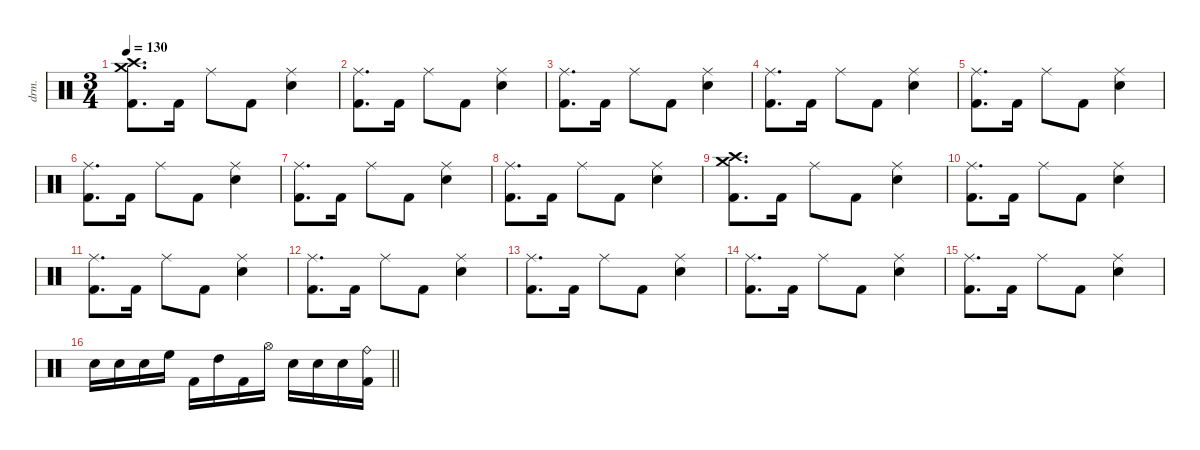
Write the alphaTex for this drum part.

\defaultSystemsLayout 4
\hideDynamics
\bracketExtendMode nobrackets
\otherSystemsTrackNameOrientation horizontal
\track ("Percussion" "drm.") {instrument percussion}
\staff {score}
\articulation defaults
\ts (3 4)
\tempo 130
\clef neutral
\ks c
("Crash medium (hit)" "Crash high (hit)" "Kick (hit) 2").8{d dy f beam Down} "Kick (hit) 2".16{beam Down} "Ride (middle)".8{beam Down} "Kick (hit) 2".8{beam Down} ("Ride (middle)" "Snare (hit) 2").4{beam Down} |
("Ride (middle)" "Kick (hit) 2").8{d beam Down} "Kick (hit) 2".16{beam Down} "Ride (middle)".8{beam Down} "Kick (hit) 2".8{beam Down} ("Ride (middle)" "Snare (hit) 2").4{beam Down} |
("Ride (middle)" "Kick (hit) 2").8{d beam Down} "Kick (hit) 2".16{beam Down} "Ride (middle)".8{beam Down} "Kick (hit) 2".8{beam Down} ("Ride (middle)" "Snare (hit) 2").4{beam Down} |
("Ride (middle)" "Kick (hit) 2").8{d beam Down} "Kick (hit) 2".16{beam Down} "Ride (middle)".8{beam Down} "Kick (hit) 2".8{beam Down} ("Ride (middle)" "Snare (hit) 2").4{beam Down} |
("Ride (middle)" "Kick (hit) 2").8{d beam Down} "Kick (hit) 2".16{beam Down} "Ride (middle)".8{beam Down} "Kick (hit) 2".8{beam Down} ("Ride (middle)" "Snare (hit) 2").4{beam Down} |
("Ride (middle)" "Kick (hit) 2").8{d beam Down} "Kick (hit) 2".16{beam Down} "Ride (middle)".8{beam Down} "Kick (hit) 2".8{beam Down} ("Ride (middle)" "Snare (hit) 2").4{beam Down} |
("Ride (middle)" "Kick (hit) 2").8{d beam Down} "Kick (hit) 2".16{beam Down} "Ride (middle)".8{beam Down} "Kick (hit) 2".8{beam Down} ("Ride (middle)" "Snare (hit) 2").4{beam Down} |
("Ride (middle)" "Kick (hit) 2").8{d beam Down} "Kick (hit) 2".16{beam Down} "Ride (middle)".8{beam Down} "Kick (hit) 2".8{beam Down} ("Ride (middle)" "Snare (hit) 2").4{beam Down} |
("Crash medium (hit)" "Crash high (hit)" "Kick (hit) 2").8{d beam Down} "Kick (hit) 2".16{beam Down} "Ride (middle)".8{beam Down} "Kick (hit) 2".8{beam Down} ("Ride (middle)" "Snare (hit) 2").4{beam Down} |
("Ride (middle)" "Kick (hit) 2").8{d beam Down} "Kick (hit) 2".16{beam Down} "Ride (middle)".8{beam Down} "Kick (hit) 2".8{beam Down} ("Ride (middle)" "Snare (hit) 2").4{beam Down} |
("Ride (middle)" "Kick (hit) 2").8{d beam Down} "Kick (hit) 2".16{beam Down} "Ride (middle)".8{beam Down} "Kick (hit) 2".8{beam Down} ("Ride (middle)" "Snare (hit) 2").4{beam Down} |
("Ride (middle)" "Kick (hit) 2").8{d beam Down} "Kick (hit) 2".16{beam Down} "Ride (middle)".8{beam Down} "Kick (hit) 2".8{beam Down} ("Ride (middle)" "Snare (hit) 2").4{beam Down} |
("Ride (middle)" "Kick (hit) 2").8{d beam Down} "Kick (hit) 2".16{beam Down} "Ride (middle)".8{beam Down} "Kick (hit) 2".8{beam Down} ("Ride (middle)" "Snare (hit) 2").4{beam Down} |
("Ride (middle)" "Kick (hit) 2").8{d beam Down} "Kick (hit) 2".16{beam Down} "Ride (middle)".8{beam Down} "Kick (hit) 2".8{beam Down} ("Ride (middle)" "Snare (hit) 2").4{beam Down} |
("Ride (middle)" "Kick (hit) 2").8{d beam Down} "Kick (hit) 2".16{beam Down} "Ride (middle)".8{beam Down} "Kick (hit) 2".8{beam Down} ("Ride (middle)" "Snare (hit) 2").4{beam Down} |
\barLineRight lightlight "Snare (hit) 2".16{beam Down} "Snare (hit) 2".16{beam Down} "Snare (hit) 2".16{beam Down} "High Floor Tom (hit)".16{beam Down} "Kick (hit) 2".16{beam Down} "High Tom (hit)".16{beam Down} "Kick (hit) 2".16{beam Down} "Hi-Hat (open)".16{beam Down} "Snare (hit) 2".16{beam Down} "Snare (hit) 2".16{beam Down} "Snare (hit) 2".16{beam Down}
("Ride (bell)" "Kick (hit) 2").16{beam Down}
